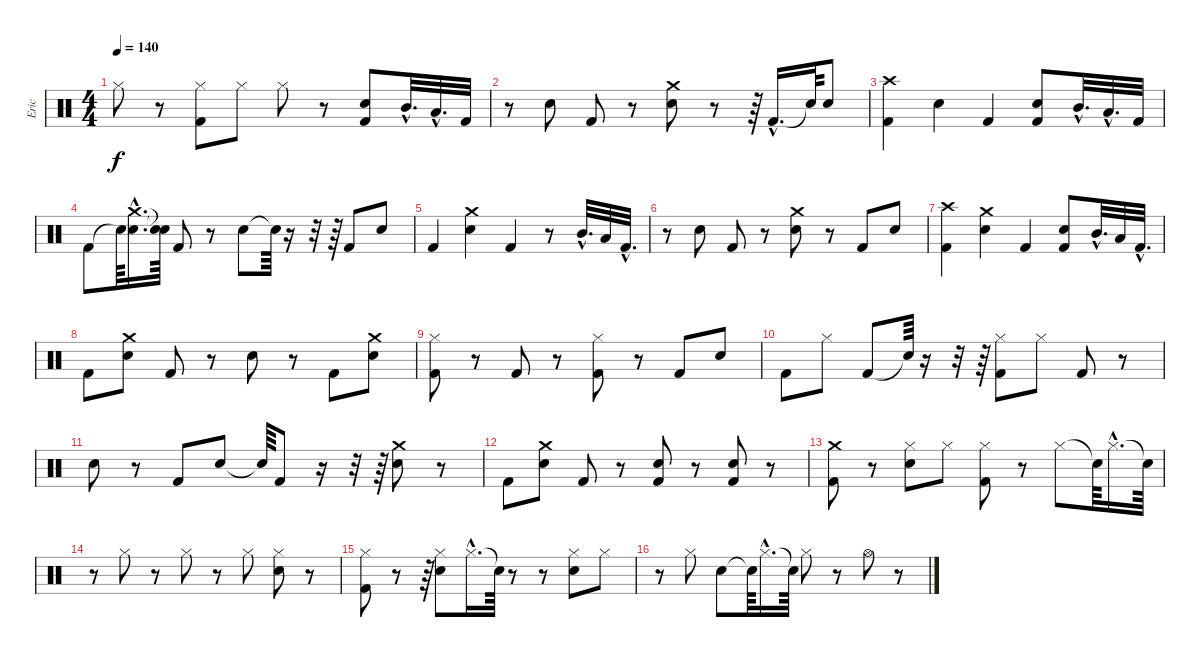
\track ("Eric" "Eric") {instrument percussion}
\staff {score}
\articulation defaults
\ts (4 4)
\tempo 140
\clef neutral
\ks c "Hi-Hat (closed)".8{dy f}
r.8 ("Kick (hit) 2" "Hi-Hat (closed)").8 "Hi-Hat (closed)".8 "Hi-Hat (closed)".8 r.8 ("Kick (hit) 2" "Electric Snare (hit)").8 "Mid Tom (hit)"{hac}.32{d} "Low Tom (hit)"{hac}.32{d} "Kick (hit) 2".32 |
r.8 "Electric Snare (hit)".8 "Kick (hit) 2".8 r.8 ("Crash medium (hit)" "Electric Snare (hit)").8 r.8 r.64 "Kick (hit) 2"{hac}.16{d} "Snare (hit)"{t}.64 "Electric Snare (hit)".8 |
("Crash high (hit)" "Kick (hit) 2").4 "Electric Snare (hit)".4 "Kick (hit) 2".4 ("Kick (hit) 2" "Electric Snare (hit)").8 "Mid Tom (hit)"{hac}.32{d} "Low Tom (hit)"{hac}.32{d} "Kick (hit) 2".32 |
"Kick (hit) 2".8 "Snare (hit)"{t}.64 ("Crash medium (hit)"{hac} "Electric Snare (hit)"{hac}).16{d} ("Snare (hit)"{t} "Snare (hit)"{t}).64 "Kick (hit) 2".8 r.8 "Electric Snare (hit)".8 "Snare (hit)"{t}.64 r.16 r.32 r.64 "Kick (hit) 2".8 "Electric Snare (hit)".8 |
"Kick (hit) 2".4 ("Crash medium (hit)" "Electric Snare (hit)").4 "Kick (hit) 2".4 r.8 "Mid Tom (hit)"{hac}.32{d} "Low Tom (hit)".32 "Kick (hit) 2"{hac}.32{d} |
r.8 "Electric Snare (hit)".8 "Kick (hit) 2".8 r.8 ("Crash medium (hit)" "Electric Snare (hit)").8 r.8 "Kick (hit) 2".8 "Electric Snare (hit)".8 |
("Crash high (hit)" "Kick (hit) 2").4 ("Crash medium (hit)" "Electric Snare (hit)").4 "Kick (hit) 2".4 ("Kick (hit) 2" "Electric Snare (hit)").8 "Mid Tom (hit)"{hac}.32{d} "Low Tom (hit)".32 "Kick (hit) 2"{hac}.32{d} |
"Kick (hit) 2".8 ("Crash medium (hit)" "Electric Snare (hit)").8 "Kick (hit) 2".8 r.8 "Electric Snare (hit)".8 r.8 "Kick (hit) 2".8 ("Crash medium (hit)" "Electric Snare (hit)").8 |
("Hi-Hat (closed)" "Kick (hit) 2").8 r.8 "Kick (hit) 2".8 r.8 ("Hi-Hat (closed)" "Kick (hit) 2").8 r.8 "Kick (hit) 2".8 "Electric Snare (hit)".8 |
"Kick (hit) 2".8 "Hi-Hat (closed)".8 "Kick (hit) 2".8 "Snare (hit)"{t}.64 r.16 r.32 r.64 ("Hi-Hat (closed)" "Kick (hit) 2").8 "Hi-Hat (closed)".8 "Kick (hit) 2".8 r.8 |
"Electric Snare (hit)".8 r.8 "Kick (hit) 2".8 "Electric Snare (hit)".8 "Snare (hit)"{t}.64 "Kick (hit) 2".8 r.16 r.32 r.64 ("Crash medium (hit)" "Electric Snare (hit)").8 r.8 |
"Kick (hit) 2".8 ("Crash medium (hit)" "Electric Snare (hit)").8 "Kick (hit) 2".8 r.8 ("Kick (hit) 2" "Electric Snare (hit)").8 r.8 ("Kick (hit) 2" "Electric Snare (hit)").8 r.8 |
("Kick (hit) 2" "Crash medium (hit)").8 r.8 ("Hi-Hat (closed)" "Electric Snare (hit)").8 "Hi-Hat (closed)".8 ("Kick (hit) 2" "Hi-Hat (closed)").8 r.8 "Hi-Hat (closed)".8 "Snare (hit)"{t}.64 "Hi-Hat (closed)"{hac}.16{d} "Snare (hit)"{t}.64 |
r.8 "Hi-Hat (closed)".8 r.8 "Hi-Hat (closed)".8 r.8 "Hi-Hat (closed)".8 ("Hi-Hat (closed)" "Electric Snare (hit)").8 r.8 |
("Kick (hit) 2" "Hi-Hat (closed)").8 r.8 r.64 ("Hi-Hat (closed)" "Electric Snare (hit)").8 "Hi-Hat (closed)"{hac}.16{d} "Snare (hit)"{t}.64 r.8 r.8 ("Hi-Hat (closed)" "Electric Snare (hit)").8 "Hi-Hat (closed)".8 |
r.8 "Hi-Hat (closed)".8 "Electric Snare (hit)".8 "Snare (hit)"{t}.64 "Hi-Hat (closed)"{hac}.16{d} "Snare (hit)"{t}.64 "Hi-Hat (closed)".8 r.8 "Hi-Hat (open)".8 r.8
